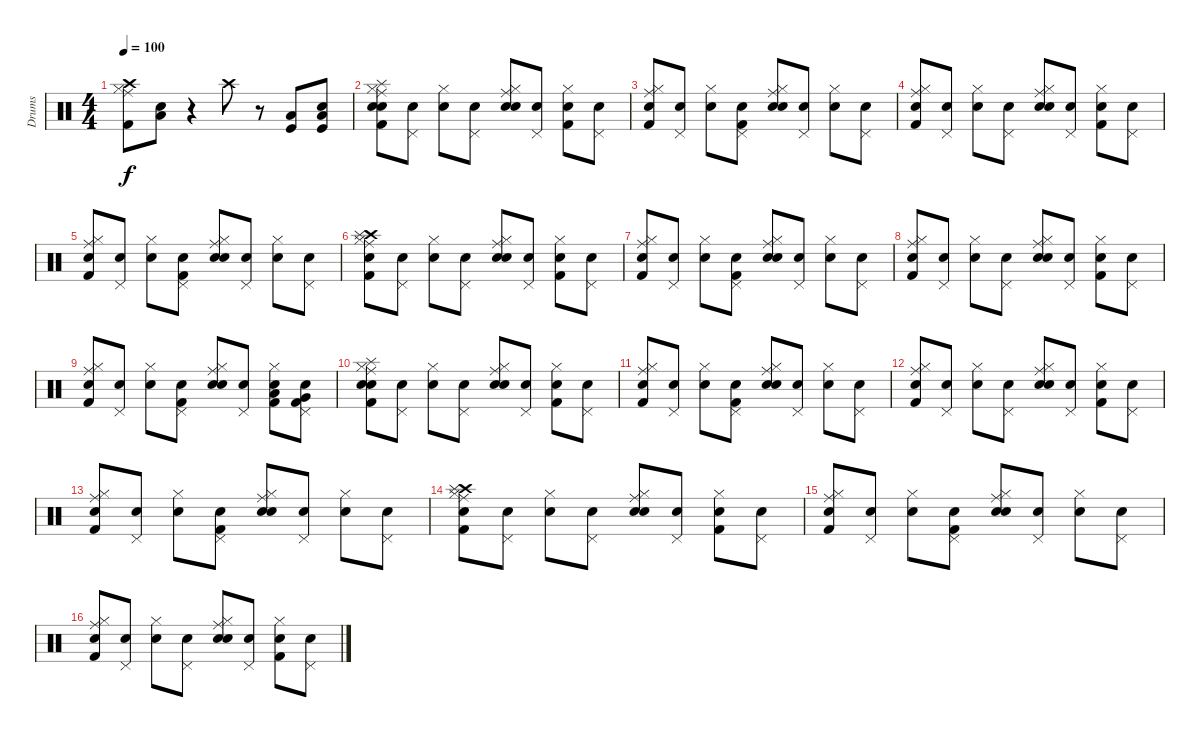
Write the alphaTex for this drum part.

\track ("Drums" "Drums") {instrument percussion}
\staff {score}
\articulation defaults
\ts (4 4)
\tempo 100
\clef neutral
\ks c
("Crash high (hit)" "Ride (middle)" "Hi-Hat (closed)" "Kick (hit) 2").8{dy f} ("Snare (hit)" "Low Tom (hit)").8 r.4 "Crash high (hit)".8 r.8 ("Kick (hit)" "Low Tom (hit)").8 ("Snare (hit)" "Kick (hit)" "Low Tom (hit)").8 |
("Snare (hit)" "Ride (middle)" "Hi-Hat (closed)" "Kick (hit) 2" "Snare (hit) 2" "Splash (hit)").8 ("Snare (hit)" "Pedal Hi-Hat (hit)").8 ("Snare (hit)" "Hi-Hat (closed)").8 ("Snare (hit)" "Pedal Hi-Hat (hit)").8 ("Snare (hit)" "Ride (middle)" "Hi-Hat (closed)" "Snare (hit) 2").8 ("Snare (hit)" "Pedal Hi-Hat (hit)").8 ("Snare (hit)" "Hi-Hat (closed)" "Kick (hit) 2").8 ("Snare (hit)" "Pedal Hi-Hat (hit)").8 |
("Snare (hit)" "Ride (middle)" "Hi-Hat (closed)" "Kick (hit) 2").8 ("Snare (hit)" "Pedal Hi-Hat (hit)").8 ("Snare (hit)" "Hi-Hat (closed)").8 ("Snare (hit)" "Pedal Hi-Hat (hit)" "Kick (hit) 2").8 ("Snare (hit)" "Ride (middle)" "Hi-Hat (closed)" "Snare (hit) 2").8 ("Snare (hit)" "Pedal Hi-Hat (hit)").8 ("Snare (hit)" "Hi-Hat (closed)").8 ("Snare (hit)" "Pedal Hi-Hat (hit)").8 |
("Snare (hit)" "Kick (hit) 2" "Ride (middle)" "Hi-Hat (closed)").8 ("Snare (hit)" "Pedal Hi-Hat (hit)").8 ("Snare (hit)" "Hi-Hat (closed)").8 ("Snare (hit)" "Pedal Hi-Hat (hit)").8 ("Snare (hit)" "Ride (middle)" "Hi-Hat (closed)" "Snare (hit) 2").8 ("Snare (hit)" "Pedal Hi-Hat (hit)").8 ("Snare (hit)" "Hi-Hat (closed)" "Kick (hit) 2").8 ("Snare (hit)" "Pedal Hi-Hat (hit)").8 |
("Snare (hit)" "Ride (middle)" "Hi-Hat (closed)" "Kick (hit) 2").8 ("Snare (hit)" "Pedal Hi-Hat (hit)").8 ("Snare (hit)" "Hi-Hat (closed)").8 ("Snare (hit)" "Pedal Hi-Hat (hit)" "Kick (hit) 2").8 ("Snare (hit)" "Ride (middle)" "Hi-Hat (closed)" "Snare (hit) 2").8 ("Snare (hit)" "Pedal Hi-Hat (hit)").8 ("Snare (hit)" "Hi-Hat (closed)").8 ("Snare (hit)" "Pedal Hi-Hat (hit)").8 |
("Snare (hit)" "Hi-Hat (closed)" "Ride (middle)" "Kick (hit) 2" "Crash high (hit)" "Splash (hit)").8 ("Snare (hit)" "Pedal Hi-Hat (hit)").8 ("Snare (hit)" "Hi-Hat (closed)").8 ("Snare (hit)" "Pedal Hi-Hat (hit)").8 ("Snare (hit)" "Ride (middle)" "Hi-Hat (closed)" "Snare (hit) 2").8 ("Snare (hit)" "Pedal Hi-Hat (hit)").8 ("Snare (hit)" "Hi-Hat (closed)" "Kick (hit) 2").8 ("Snare (hit)" "Pedal Hi-Hat (hit)").8 |
("Snare (hit)" "Ride (middle)" "Hi-Hat (closed)" "Kick (hit) 2").8 ("Snare (hit)" "Pedal Hi-Hat (hit)").8 ("Snare (hit)" "Hi-Hat (closed)").8 ("Snare (hit)" "Pedal Hi-Hat (hit)" "Kick (hit) 2").8 ("Snare (hit)" "Ride (middle)" "Hi-Hat (closed)" "Snare (hit) 2").8 ("Snare (hit)" "Pedal Hi-Hat (hit)").8 ("Snare (hit)" "Hi-Hat (closed)").8 ("Snare (hit)" "Pedal Hi-Hat (hit)").8 |
("Snare (hit)" "Kick (hit) 2" "Ride (middle)" "Hi-Hat (closed)").8 ("Snare (hit)" "Pedal Hi-Hat (hit)").8 ("Snare (hit)" "Hi-Hat (closed)").8 ("Snare (hit)" "Pedal Hi-Hat (hit)").8 ("Snare (hit)" "Ride (middle)" "Hi-Hat (closed)" "Snare (hit) 2").8 ("Snare (hit)" "Pedal Hi-Hat (hit)").8 ("Snare (hit)" "Hi-Hat (closed)" "Kick (hit) 2").8 ("Snare (hit)" "Pedal Hi-Hat (hit)").8 |
("Snare (hit)" "Ride (middle)" "Hi-Hat (closed)" "Kick (hit) 2").8 ("Snare (hit)" "Pedal Hi-Hat (hit)").8 ("Snare (hit)" "Hi-Hat (closed)").8 ("Snare (hit)" "Pedal Hi-Hat (hit)" "Kick (hit) 2").8 ("Snare (hit)" "Ride (middle)" "Hi-Hat (closed)" "Snare (hit) 2").8 ("Snare (hit)" "Pedal Hi-Hat (hit)").8 ("Snare (hit)" "Kick (hit) 2" "Low Tom (hit)" "Hi-Hat (closed)").8 ("Snare (hit)" "Very Low Tom (hit)" "Kick (hit) 2" "Pedal Hi-Hat (hit)").8 |
("Snare (hit)" "Ride (middle)" "Hi-Hat (closed)" "Kick (hit) 2" "Snare (hit) 2" "Splash (hit)").8 ("Snare (hit)" "Pedal Hi-Hat (hit)").8 ("Snare (hit)" "Hi-Hat (closed)").8 ("Snare (hit)" "Pedal Hi-Hat (hit)").8 ("Snare (hit)" "Ride (middle)" "Hi-Hat (closed)" "Snare (hit) 2").8 ("Snare (hit)" "Pedal Hi-Hat (hit)").8 ("Snare (hit)" "Hi-Hat (closed)" "Kick (hit) 2").8 ("Snare (hit)" "Pedal Hi-Hat (hit)").8 |
("Snare (hit)" "Ride (middle)" "Hi-Hat (closed)" "Kick (hit) 2").8 ("Snare (hit)" "Pedal Hi-Hat (hit)").8 ("Snare (hit)" "Hi-Hat (closed)").8 ("Snare (hit)" "Pedal Hi-Hat (hit)" "Kick (hit) 2").8 ("Snare (hit)" "Ride (middle)" "Hi-Hat (closed)" "Snare (hit) 2").8 ("Snare (hit)" "Pedal Hi-Hat (hit)").8 ("Snare (hit)" "Hi-Hat (closed)").8 ("Snare (hit)" "Pedal Hi-Hat (hit)").8 |
("Snare (hit)" "Kick (hit) 2" "Ride (middle)" "Hi-Hat (closed)").8 ("Snare (hit)" "Pedal Hi-Hat (hit)").8 ("Snare (hit)" "Hi-Hat (closed)").8 ("Snare (hit)" "Pedal Hi-Hat (hit)").8 ("Snare (hit)" "Ride (middle)" "Hi-Hat (closed)" "Snare (hit) 2").8 ("Snare (hit)" "Pedal Hi-Hat (hit)").8 ("Snare (hit)" "Hi-Hat (closed)" "Kick (hit) 2").8 ("Snare (hit)" "Pedal Hi-Hat (hit)").8 |
("Snare (hit)" "Ride (middle)" "Hi-Hat (closed)" "Kick (hit) 2").8 ("Snare (hit)" "Pedal Hi-Hat (hit)").8 ("Snare (hit)" "Hi-Hat (closed)").8 ("Snare (hit)" "Pedal Hi-Hat (hit)" "Kick (hit) 2").8 ("Snare (hit)" "Ride (middle)" "Hi-Hat (closed)" "Snare (hit) 2").8 ("Snare (hit)" "Pedal Hi-Hat (hit)").8 ("Snare (hit)" "Hi-Hat (closed)").8 ("Snare (hit)" "Pedal Hi-Hat (hit)").8 |
("Snare (hit)" "Hi-Hat (closed)" "Ride (middle)" "Kick (hit) 2" "Crash high (hit)" "Splash (hit)").8 ("Snare (hit)" "Pedal Hi-Hat (hit)").8 ("Snare (hit)" "Hi-Hat (closed)").8 ("Snare (hit)" "Pedal Hi-Hat (hit)").8 ("Snare (hit)" "Ride (middle)" "Hi-Hat (closed)" "Snare (hit) 2").8 ("Snare (hit)" "Pedal Hi-Hat (hit)").8 ("Snare (hit)" "Hi-Hat (closed)" "Kick (hit) 2").8 ("Snare (hit)" "Pedal Hi-Hat (hit)").8 |
("Snare (hit)" "Ride (middle)" "Hi-Hat (closed)" "Kick (hit) 2").8 ("Snare (hit)" "Pedal Hi-Hat (hit)").8 ("Snare (hit)" "Hi-Hat (closed)").8 ("Snare (hit)" "Pedal Hi-Hat (hit)" "Kick (hit) 2").8 ("Snare (hit)" "Ride (middle)" "Hi-Hat (closed)" "Snare (hit) 2").8 ("Snare (hit)" "Pedal Hi-Hat (hit)").8 ("Snare (hit)" "Hi-Hat (closed)").8 ("Snare (hit)" "Pedal Hi-Hat (hit)").8 |
("Snare (hit)" "Kick (hit) 2" "Ride (middle)" "Hi-Hat (closed)").8 ("Snare (hit)" "Pedal Hi-Hat (hit)").8 ("Snare (hit)" "Hi-Hat (closed)").8 ("Snare (hit)" "Pedal Hi-Hat (hit)").8 ("Snare (hit)" "Ride (middle)" "Hi-Hat (closed)" "Snare (hit) 2").8 ("Snare (hit)" "Pedal Hi-Hat (hit)").8 ("Snare (hit)" "Hi-Hat (closed)" "Kick (hit) 2").8 ("Snare (hit)" "Pedal Hi-Hat (hit)").8
